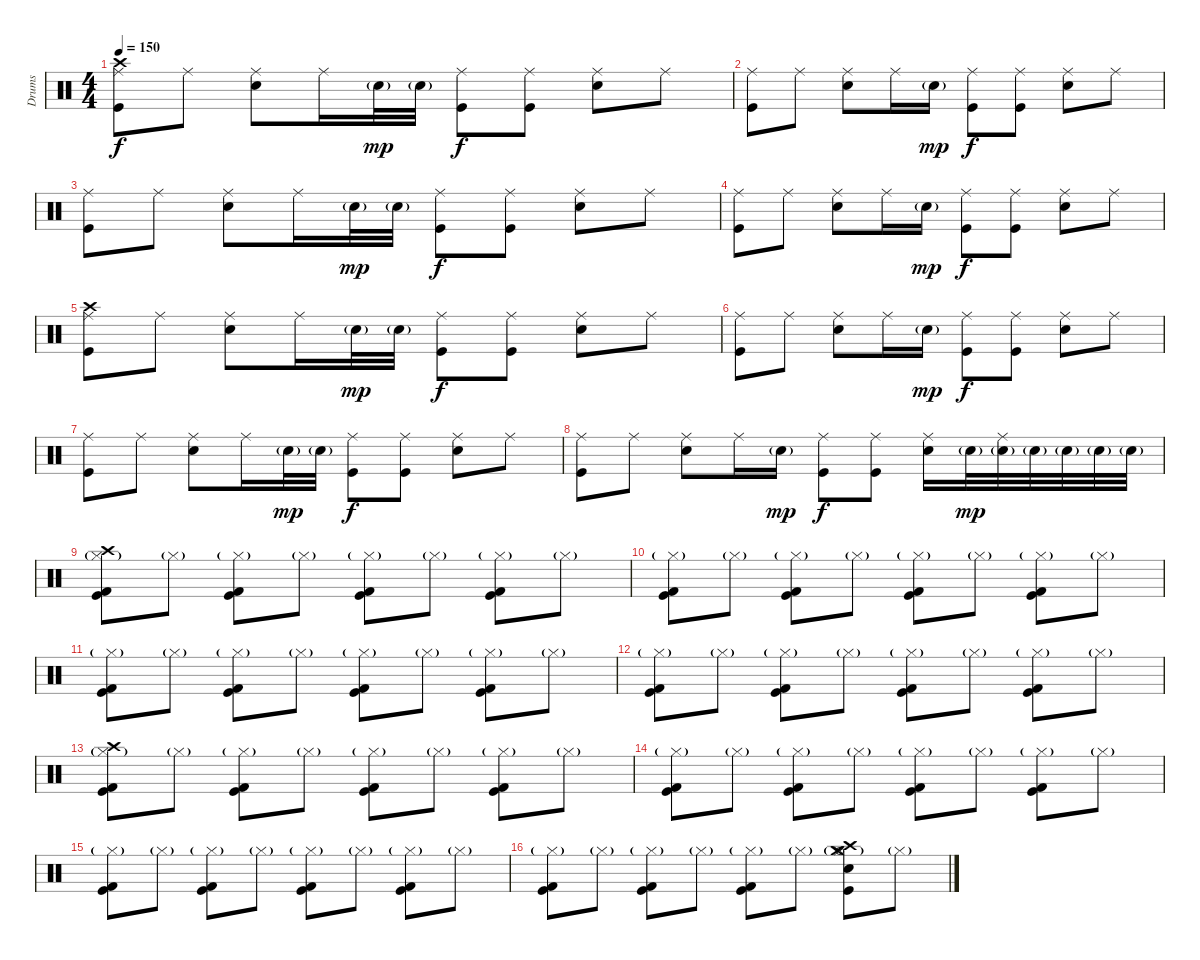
\track ("Drums" "Drums") {instrument percussion}
\staff {score}
\articulation defaults
\ts (4 4)
\tempo 150
\clef neutral
\ks c
("Crash high (hit)" "Ride (middle)" "Kick (hit)").8{dy f} "Ride (middle)".8 ("Ride (middle)" "Snare (hit) 2").8 "Ride (middle)".16 "Snare (hit) 2"{g}.32{dy mp} "Snare (hit) 2"{g}.32 ("Ride (middle)" "Kick (hit)").8{dy f} ("Ride (middle)" "Kick (hit)").8 ("Ride (middle)" "Snare (hit) 2").8 "Ride (middle)".8 |
("Ride (middle)" "Kick (hit)").8 "Ride (middle)".8 ("Ride (middle)" "Snare (hit) 2").8 "Ride (middle)".16 "Snare (hit) 2"{g}.16{dy mp} ("Ride (middle)" "Kick (hit)").8{dy f} ("Ride (middle)" "Kick (hit)").8 ("Ride (middle)" "Snare (hit) 2").8 "Ride (middle)".8 |
("Ride (middle)" "Kick (hit)").8 "Ride (middle)".8 ("Ride (middle)" "Snare (hit) 2").8 "Ride (middle)".16 "Snare (hit) 2"{g}.32{dy mp} "Snare (hit) 2"{g}.32 ("Ride (middle)" "Kick (hit)").8{dy f} ("Ride (middle)" "Kick (hit)").8 ("Ride (middle)" "Snare (hit) 2").8 "Ride (middle)".8 |
("Ride (middle)" "Kick (hit)").8 "Ride (middle)".8 ("Ride (middle)" "Snare (hit) 2").8 "Ride (middle)".16 "Snare (hit) 2"{g}.16{dy mp} ("Ride (middle)" "Kick (hit)").8{dy f} ("Ride (middle)" "Kick (hit)").8 ("Ride (middle)" "Snare (hit) 2").8 "Ride (middle)".8 |
("Crash high (hit)" "Ride (middle)" "Kick (hit)").8 "Ride (middle)".8 ("Ride (middle)" "Snare (hit) 2").8 "Ride (middle)".16 "Snare (hit) 2"{g}.32{dy mp} "Snare (hit) 2"{g}.32 ("Ride (middle)" "Kick (hit)").8{dy f} ("Ride (middle)" "Kick (hit)").8 ("Ride (middle)" "Snare (hit) 2").8 "Ride (middle)".8 |
("Ride (middle)" "Kick (hit)").8 "Ride (middle)".8 ("Ride (middle)" "Snare (hit) 2").8 "Ride (middle)".16 "Snare (hit) 2"{g}.16{dy mp} ("Ride (middle)" "Kick (hit)").8{dy f} ("Ride (middle)" "Kick (hit)").8 ("Ride (middle)" "Snare (hit) 2").8 "Ride (middle)".8 |
("Ride (middle)" "Kick (hit)").8 "Ride (middle)".8 ("Ride (middle)" "Snare (hit) 2").8 "Ride (middle)".16 "Snare (hit) 2"{g}.32{dy mp} "Snare (hit) 2"{g}.32 ("Ride (middle)" "Kick (hit)").8{dy f} ("Ride (middle)" "Kick (hit)").8 ("Ride (middle)" "Snare (hit) 2").8 "Ride (middle)".8 |
("Ride (middle)" "Kick (hit)").8 "Ride (middle)".8 ("Ride (middle)" "Snare (hit) 2").8 "Ride (middle)".16 "Snare (hit) 2"{g}.16{dy mp} ("Ride (middle)" "Kick (hit)").8{dy f} ("Ride (middle)" "Kick (hit)").8 ("Ride (middle)" "Snare (hit) 2").16 "Snare (hit) 2"{g}.32{dy mp} ("Ride (middle)" "Snare (hit) 2"{g}).32 "Snare (hit) 2"{g}.32 "Snare (hit) 2"{g}.32 "Snare (hit) 2"{g}.32 "Snare (hit) 2"{g}.32 |
("Crash high (hit)" "Hi-Hat (closed)"{g} "Kick (hit) 2" "Kick (hit)").8 "Hi-Hat (closed)"{g}.8 ("Hi-Hat (closed)"{g} "Kick (hit) 2" "Kick (hit)").8 "Hi-Hat (closed)"{g}.8 ("Hi-Hat (closed)"{g} "Kick (hit) 2" "Kick (hit)").8 "Hi-Hat (closed)"{g}.8 ("Hi-Hat (closed)"{g} "Kick (hit) 2" "Kick (hit)").8 "Hi-Hat (closed)"{g}.8 |
("Hi-Hat (closed)"{g} "Kick (hit) 2" "Kick (hit)").8 "Hi-Hat (closed)"{g}.8 ("Hi-Hat (closed)"{g} "Kick (hit) 2" "Kick (hit)").8 "Hi-Hat (closed)"{g}.8 ("Hi-Hat (closed)"{g} "Kick (hit) 2" "Kick (hit)").8 "Hi-Hat (closed)"{g}.8 ("Hi-Hat (closed)"{g} "Kick (hit) 2" "Kick (hit)").8 "Hi-Hat (closed)"{g}.8 |
("Hi-Hat (closed)"{g} "Kick (hit) 2" "Kick (hit)").8 "Hi-Hat (closed)"{g}.8 ("Hi-Hat (closed)"{g} "Kick (hit) 2" "Kick (hit)").8 "Hi-Hat (closed)"{g}.8 ("Hi-Hat (closed)"{g} "Kick (hit) 2" "Kick (hit)").8 "Hi-Hat (closed)"{g}.8 ("Hi-Hat (closed)"{g} "Kick (hit) 2" "Kick (hit)").8 "Hi-Hat (closed)"{g}.8 |
("Hi-Hat (closed)"{g} "Kick (hit) 2" "Kick (hit)").8 "Hi-Hat (closed)"{g}.8 ("Hi-Hat (closed)"{g} "Kick (hit) 2" "Kick (hit)").8 "Hi-Hat (closed)"{g}.8 ("Hi-Hat (closed)"{g} "Kick (hit) 2" "Kick (hit)").8 "Hi-Hat (closed)"{g}.8 ("Hi-Hat (closed)"{g} "Kick (hit) 2" "Kick (hit)").8 "Hi-Hat (closed)"{g}.8 |
("Crash high (hit)" "Hi-Hat (closed)"{g} "Kick (hit) 2" "Kick (hit)").8 "Hi-Hat (closed)"{g}.8 ("Hi-Hat (closed)"{g} "Kick (hit) 2" "Kick (hit)").8 "Hi-Hat (closed)"{g}.8 ("Hi-Hat (closed)"{g} "Kick (hit) 2" "Kick (hit)").8 "Hi-Hat (closed)"{g}.8 ("Hi-Hat (closed)"{g} "Kick (hit) 2" "Kick (hit)").8 "Hi-Hat (closed)"{g}.8 |
("Hi-Hat (closed)"{g} "Kick (hit) 2" "Kick (hit)").8 "Hi-Hat (closed)"{g}.8 ("Hi-Hat (closed)"{g} "Kick (hit) 2" "Kick (hit)").8 "Hi-Hat (closed)"{g}.8 ("Hi-Hat (closed)"{g} "Kick (hit) 2" "Kick (hit)").8 "Hi-Hat (closed)"{g}.8 ("Hi-Hat (closed)"{g} "Kick (hit) 2" "Kick (hit)").8 "Hi-Hat (closed)"{g}.8 |
("Hi-Hat (closed)"{g} "Kick (hit) 2" "Kick (hit)").8 "Hi-Hat (closed)"{g}.8 ("Hi-Hat (closed)"{g} "Kick (hit) 2" "Kick (hit)").8 "Hi-Hat (closed)"{g}.8 ("Hi-Hat (closed)"{g} "Kick (hit) 2" "Kick (hit)").8 "Hi-Hat (closed)"{g}.8 ("Hi-Hat (closed)"{g} "Kick (hit) 2" "Kick (hit)").8 "Hi-Hat (closed)"{g}.8 |
("Hi-Hat (closed)"{g} "Kick (hit) 2" "Kick (hit)").8 "Hi-Hat (closed)"{g}.8 ("Hi-Hat (closed)"{g} "Kick (hit) 2" "Kick (hit)").8 "Hi-Hat (closed)"{g}.8 ("Hi-Hat (closed)"{g} "Kick (hit) 2" "Kick (hit)").8 "Hi-Hat (closed)"{g}.8 ("Crash high (hit)" "Hi-Hat (open)" "Crash medium (hit)" "Hi-Hat (closed)"{g} "Snare (hit) 2" "Kick (hit)").8 "Hi-Hat (closed)"{g}.8
